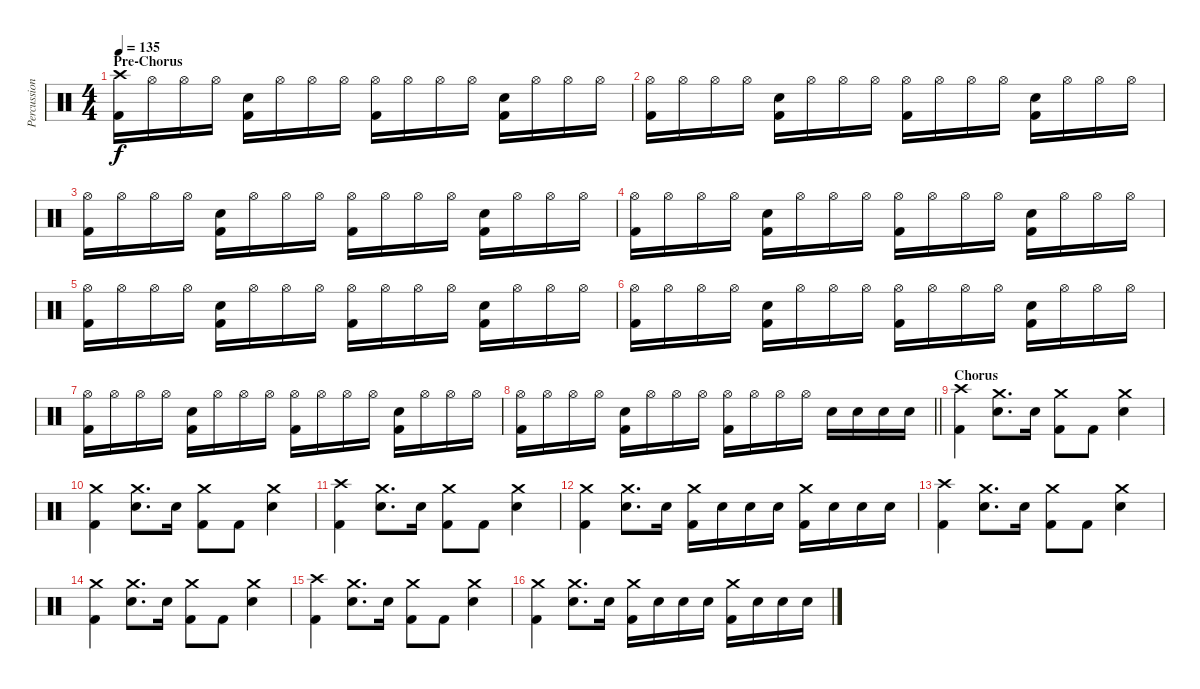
\track ("Percussion" "Percussion") {instrument percussion}
\staff {score}
\articulation defaults
\ts (4 4)
\section ("" "Pre-Chorus")
\tempo 135
\clef neutral
\ks c
("Crash high (hit)" "Kick (hit) 2").16{dy f} "Hi-Hat (open)".16 "Hi-Hat (open)".16 "Hi-Hat (open)".16 ("Electric Snare (hit)" "Kick (hit) 2").16 "Hi-Hat (open)".16 "Hi-Hat (open)".16 "Hi-Hat (open)".16 ("Hi-Hat (open)" "Kick (hit) 2").16 "Hi-Hat (open)".16 "Hi-Hat (open)".16 "Hi-Hat (open)".16 ("Electric Snare (hit)" "Kick (hit) 2").16 "Hi-Hat (open)".16 "Hi-Hat (open)".16 "Hi-Hat (open)".16 |
("Hi-Hat (open)" "Kick (hit) 2").16 "Hi-Hat (open)".16 "Hi-Hat (open)".16 "Hi-Hat (open)".16 ("Electric Snare (hit)" "Kick (hit) 2").16 "Hi-Hat (open)".16 "Hi-Hat (open)".16 "Hi-Hat (open)".16 ("Hi-Hat (open)" "Kick (hit) 2").16 "Hi-Hat (open)".16 "Hi-Hat (open)".16 "Hi-Hat (open)".16 ("Electric Snare (hit)" "Kick (hit) 2").16 "Hi-Hat (open)".16 "Hi-Hat (open)".16 "Hi-Hat (open)".16 |
("Hi-Hat (open)" "Kick (hit) 2").16 "Hi-Hat (open)".16 "Hi-Hat (open)".16 "Hi-Hat (open)".16 ("Electric Snare (hit)" "Kick (hit) 2").16 "Hi-Hat (open)".16 "Hi-Hat (open)".16 "Hi-Hat (open)".16 ("Hi-Hat (open)" "Kick (hit) 2").16 "Hi-Hat (open)".16 "Hi-Hat (open)".16 "Hi-Hat (open)".16 ("Electric Snare (hit)" "Kick (hit) 2").16 "Hi-Hat (open)".16 "Hi-Hat (open)".16 "Hi-Hat (open)".16 |
("Hi-Hat (open)" "Kick (hit) 2").16 "Hi-Hat (open)".16 "Hi-Hat (open)".16 "Hi-Hat (open)".16 ("Electric Snare (hit)" "Kick (hit) 2").16 "Hi-Hat (open)".16 "Hi-Hat (open)".16 "Hi-Hat (open)".16 ("Hi-Hat (open)" "Kick (hit) 2").16 "Hi-Hat (open)".16 "Hi-Hat (open)".16 "Hi-Hat (open)".16 ("Electric Snare (hit)" "Kick (hit) 2").16 "Hi-Hat (open)".16 "Hi-Hat (open)".16 "Hi-Hat (open)".16 |
("Hi-Hat (open)" "Kick (hit) 2").16 "Hi-Hat (open)".16 "Hi-Hat (open)".16 "Hi-Hat (open)".16 ("Electric Snare (hit)" "Kick (hit) 2").16 "Hi-Hat (open)".16 "Hi-Hat (open)".16 "Hi-Hat (open)".16 ("Hi-Hat (open)" "Kick (hit) 2").16 "Hi-Hat (open)".16 "Hi-Hat (open)".16 "Hi-Hat (open)".16 ("Electric Snare (hit)" "Kick (hit) 2").16 "Hi-Hat (open)".16 "Hi-Hat (open)".16 "Hi-Hat (open)".16 |
("Hi-Hat (open)" "Kick (hit) 2").16 "Hi-Hat (open)".16 "Hi-Hat (open)".16 "Hi-Hat (open)".16 ("Electric Snare (hit)" "Kick (hit) 2").16 "Hi-Hat (open)".16 "Hi-Hat (open)".16 "Hi-Hat (open)".16 ("Hi-Hat (open)" "Kick (hit) 2").16 "Hi-Hat (open)".16 "Hi-Hat (open)".16 "Hi-Hat (open)".16 ("Electric Snare (hit)" "Kick (hit) 2").16 "Hi-Hat (open)".16 "Hi-Hat (open)".16 "Hi-Hat (open)".16 |
("Hi-Hat (open)" "Kick (hit) 2").16 "Hi-Hat (open)".16 "Hi-Hat (open)".16 "Hi-Hat (open)".16 ("Electric Snare (hit)" "Kick (hit) 2").16 "Hi-Hat (open)".16 "Hi-Hat (open)".16 "Hi-Hat (open)".16 ("Hi-Hat (open)" "Kick (hit) 2").16 "Hi-Hat (open)".16 "Hi-Hat (open)".16 "Hi-Hat (open)".16 ("Electric Snare (hit)" "Kick (hit) 2").16 "Hi-Hat (open)".16 "Hi-Hat (open)".16 "Hi-Hat (open)".16 |
\barLineRight lightlight
("Hi-Hat (open)" "Kick (hit) 2").16 "Hi-Hat (open)".16 "Hi-Hat (open)".16 "Hi-Hat (open)".16 ("Electric Snare (hit)" "Kick (hit) 2").16 "Hi-Hat (open)".16 "Hi-Hat (open)".16 "Hi-Hat (open)".16 ("Hi-Hat (open)" "Kick (hit) 2").16 "Hi-Hat (open)".16 "Hi-Hat (open)".16 "Hi-Hat (open)".16 "Electric Snare (hit)".16 "Electric Snare (hit)".16 "Electric Snare (hit)".16 "Electric Snare (hit)".16 |
\section ("" "Chorus")
("Crash high (hit)" "Kick (hit) 2").4 ("Crash medium (hit)" "Electric Snare (hit)").8{d} "Electric Snare (hit)".16 ("Crash medium (hit)" "Kick (hit) 2").8 "Kick (hit) 2".8 ("Crash medium (hit)" "Electric Snare (hit)").4 |
("Crash medium (hit)" "Kick (hit) 2").4 ("Crash medium (hit)" "Electric Snare (hit)").8{d} "Electric Snare (hit)".16 ("Crash medium (hit)" "Kick (hit) 2").8 "Kick (hit) 2".8 ("Crash medium (hit)" "Electric Snare (hit)").4 |
("Crash high (hit)" "Kick (hit) 2").4 ("Crash medium (hit)" "Electric Snare (hit)").8{d} "Electric Snare (hit)".16 ("Crash medium (hit)" "Kick (hit) 2").8 "Kick (hit) 2".8 ("Crash medium (hit)" "Electric Snare (hit)").4 |
("Crash medium (hit)" "Kick (hit) 2").4 ("Crash medium (hit)" "Electric Snare (hit)").8{d} "Electric Snare (hit)".16 ("Crash medium (hit)" "Kick (hit) 2").16 "Electric Snare (hit)".16 "Electric Snare (hit)".16 "Electric Snare (hit)".16 ("Crash medium (hit)" "Kick (hit) 2").16 "Electric Snare (hit)".16 "Electric Snare (hit)".16 "Electric Snare (hit)".16 |
("Crash high (hit)" "Kick (hit) 2").4 ("Crash medium (hit)" "Electric Snare (hit)").8{d} "Electric Snare (hit)".16 ("Crash medium (hit)" "Kick (hit) 2").8 "Kick (hit) 2".8 ("Crash medium (hit)" "Electric Snare (hit)").4 |
("Crash medium (hit)" "Kick (hit) 2").4 ("Crash medium (hit)" "Electric Snare (hit)").8{d} "Electric Snare (hit)".16 ("Crash medium (hit)" "Kick (hit) 2").8 "Kick (hit) 2".8 ("Crash medium (hit)" "Electric Snare (hit)").4 |
("Crash high (hit)" "Kick (hit) 2").4 ("Crash medium (hit)" "Electric Snare (hit)").8{d} "Electric Snare (hit)".16 ("Crash medium (hit)" "Kick (hit) 2").8 "Kick (hit) 2".8 ("Crash medium (hit)" "Electric Snare (hit)").4 |
("Crash medium (hit)" "Kick (hit) 2").4 ("Crash medium (hit)" "Electric Snare (hit)").8{d} "Electric Snare (hit)".16 ("Crash medium (hit)" "Kick (hit) 2").16 "Electric Snare (hit)".16 "Electric Snare (hit)".16 "Electric Snare (hit)".16 ("Crash medium (hit)" "Kick (hit) 2").16 "Electric Snare (hit)".16 "Electric Snare (hit)".16 "Electric Snare (hit)".16
